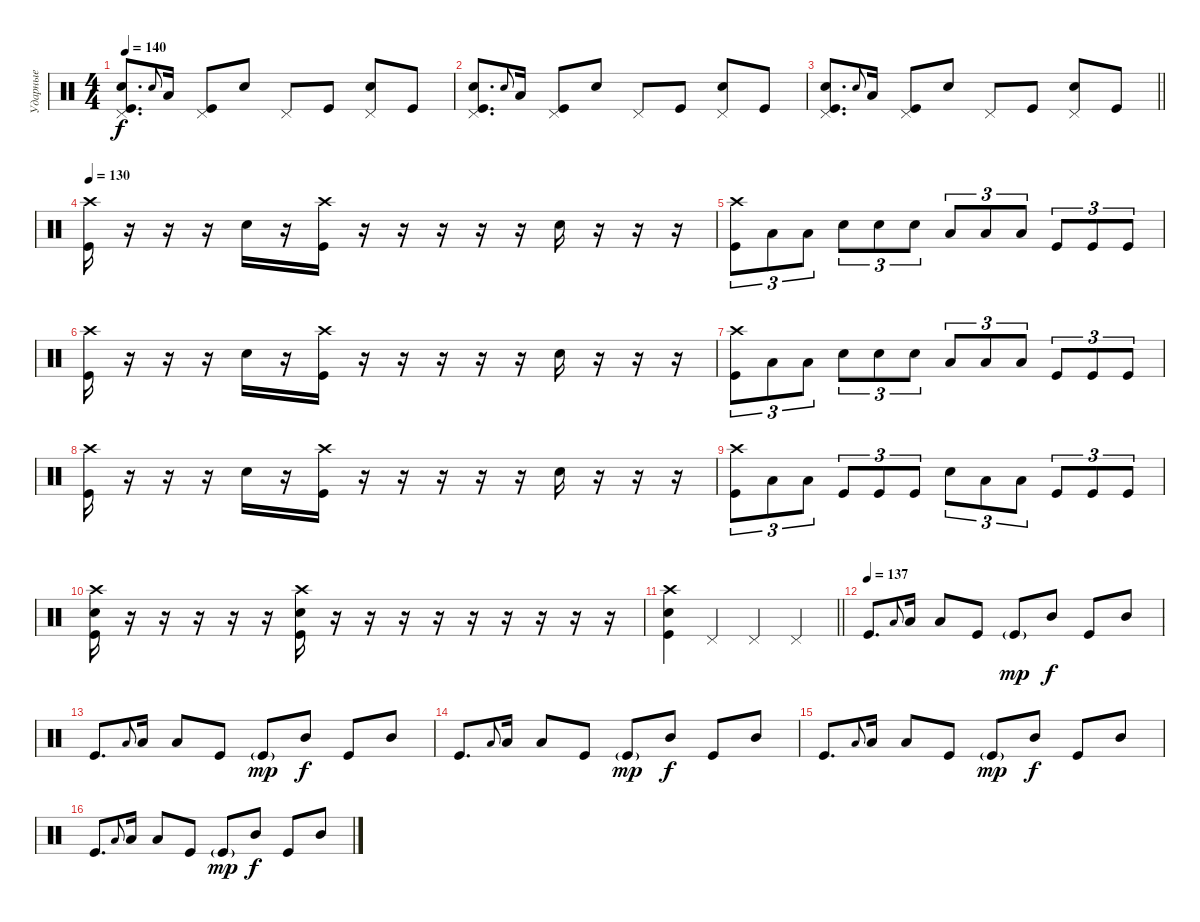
\track ("Ударные" "Ударные") {instrument percussion}
\staff {score}
\articulation defaults
\ts (4 4)
\tempo 140
\clef neutral
\ks c
("Pedal Hi-Hat (hit)" "Snare (hit) 2" "Kick (hit)").8{d dy f} "Snare (hit) 2"{x}.8{gr onbeat} "Low Tom (hit)".16 ("Pedal Hi-Hat (hit)" "Kick (hit)").8 "Snare (hit) 2".8 "Pedal Hi-Hat (hit)".8 "Kick (hit)".8 ("Pedal Hi-Hat (hit)" "Electric Snare (hit)").8 "Kick (hit)".8 |
("Pedal Hi-Hat (hit)" "Snare (hit) 2" "Kick (hit)").8{d} "Snare (hit) 2"{x}.8{gr onbeat} "Low Tom (hit)".16 ("Pedal Hi-Hat (hit)" "Kick (hit)").8 "Snare (hit) 2".8 "Pedal Hi-Hat (hit)".8 "Kick (hit)".8 ("Pedal Hi-Hat (hit)" "Electric Snare (hit)").8 "Kick (hit)".8 |
\barLineRight lightlight
("Pedal Hi-Hat (hit)" "Snare (hit) 2" "Kick (hit)").8{d} "Snare (hit) 2"{x}.8{gr onbeat} "Low Tom (hit)".16 ("Pedal Hi-Hat (hit)" "Kick (hit)").8 "Snare (hit) 2".8 "Pedal Hi-Hat (hit)".8 "Kick (hit)".8 ("Pedal Hi-Hat (hit)" "Electric Snare (hit)").8 "Kick (hit)".8 |
\tempo 130
("Crash high (hit)" "Kick (hit)").16 r.16 r.16 r.16 "Electric Snare (hit)".16 r.16 ("Crash high (hit)" "Kick (hit)").16 r.16 r.16 r.16 r.16 r.16 "Electric Snare (hit)".16 r.16 r.16 r.16 |
("Crash high (hit)" "Kick (hit)").8{tu (3 2)} "Low Tom (hit)".8{tu (3 2)} "Low Tom (hit)".8{tu (3 2)} "Snare (hit) 2".8{tu (3 2)} "Snare (hit) 2".8{tu (3 2)} "Snare (hit) 2".8{tu (3 2)} "Low Tom (hit)".8{tu (3 2)} "Low Tom (hit)".8{tu (3 2)} "Low Tom (hit)".8{tu (3 2)} "Kick (hit)".8{tu (3 2)} "Kick (hit)".8{tu (3 2)} "Kick (hit)".8{tu (3 2)} |
("Crash high (hit)" "Kick (hit)").16 r.16 r.16 r.16 "Electric Snare (hit)".16 r.16 ("Crash high (hit)" "Kick (hit)").16 r.16 r.16 r.16 r.16 r.16 "Electric Snare (hit)".16 r.16 r.16 r.16 |
("Crash high (hit)" "Kick (hit)").8{tu (3 2)} "Low Tom (hit)".8{tu (3 2)} "Low Tom (hit)".8{tu (3 2)} "Snare (hit) 2".8{tu (3 2)} "Snare (hit) 2".8{tu (3 2)} "Snare (hit) 2".8{tu (3 2)} "Low Tom (hit)".8{tu (3 2)} "Low Tom (hit)".8{tu (3 2)} "Low Tom (hit)".8{tu (3 2)} "Kick (hit)".8{tu (3 2)} "Kick (hit)".8{tu (3 2)} "Kick (hit)".8{tu (3 2)} |
("Crash high (hit)" "Kick (hit)").16 r.16 r.16 r.16 "Electric Snare (hit)".16 r.16 ("Crash high (hit)" "Kick (hit)").16 r.16 r.16 r.16 r.16 r.16 "Electric Snare (hit)".16 r.16 r.16 r.16 |
("Crash high (hit)" "Kick (hit)").8{tu (3 2)} "Low Tom (hit)".8{tu (3 2)} "Low Tom (hit)".8{tu (3 2)} "Kick (hit)".8{tu (3 2)} "Kick (hit)".8{tu (3 2)} "Kick (hit)".8{tu (3 2)} "Snare (hit) 2".8{tu (3 2)} "Low Tom (hit)".8{tu (3 2)} "Low Tom (hit)".8{tu (3 2)} "Kick (hit)".8{tu (3 2)} "Kick (hit)".8{tu (3 2)} "Kick (hit)".8{tu (3 2)} |
("Crash high (hit)" "Electric Snare (hit)" "Kick (hit)").16 r.16 r.16 r.16 r.16 r.16 ("Crash high (hit)" "Electric Snare (hit)" "Kick (hit)").16 r.16 r.16 r.16 r.16 r.16 r.16 r.16 r.16 r.16 |
\barLineRight lightlight
("Crash high (hit)" "Electric Snare (hit)" "Kick (hit)").4 "Pedal Hi-Hat (hit)".4 "Pedal Hi-Hat (hit)".4 "Pedal Hi-Hat (hit)".4 |
\tempo (137)
"Kick (hit)".8{d} "Low Tom (hit)"{x}.8{gr onbeat} "Low Tom (hit)".16 "Low Tom (hit)".8 "Kick (hit)".8 "Kick (hit)"{g}.8{dy mp} "Mid Tom (hit)".8{dy f} "Kick (hit)".8 "Mid Tom (hit)".8 |
"Kick (hit)".8{d} "Low Tom (hit)"{x}.8{gr onbeat} "Low Tom (hit)".16 "Low Tom (hit)".8 "Kick (hit)".8 "Kick (hit)"{g}.8{dy mp} "Mid Tom (hit)".8{dy f} "Kick (hit)".8 "Mid Tom (hit)".8 |
"Kick (hit)".8{d} "Low Tom (hit)"{x}.8{gr onbeat} "Low Tom (hit)".16 "Low Tom (hit)".8 "Kick (hit)".8 "Kick (hit)"{g}.8{dy mp} "Mid Tom (hit)".8{dy f} "Kick (hit)".8 "Mid Tom (hit)".8 |
"Kick (hit)".8{d} "Low Tom (hit)"{x}.8{gr onbeat} "Low Tom (hit)".16 "Low Tom (hit)".8 "Kick (hit)".8 "Kick (hit)"{g}.8{dy mp} "Mid Tom (hit)".8{dy f} "Kick (hit)".8 "Mid Tom (hit)".8 |
"Kick (hit)".8{d} "Low Tom (hit)"{x}.8{gr onbeat} "Low Tom (hit)".16 "Low Tom (hit)".8 "Kick (hit)".8 "Kick (hit)"{g}.8{dy mp} "Mid Tom (hit)".8{dy f} "Kick (hit)".8 "Mid Tom (hit)".8
